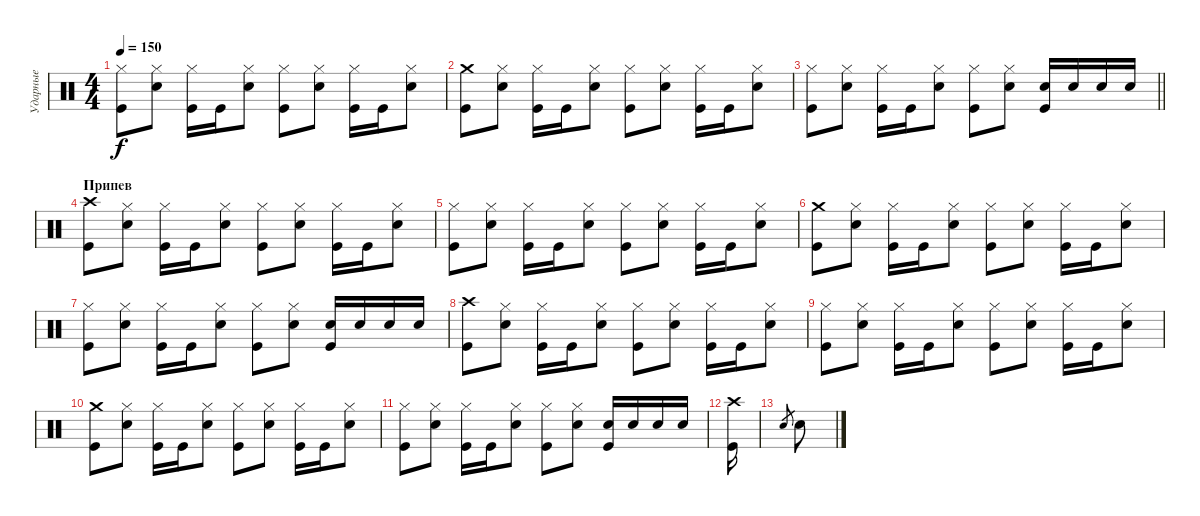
\track ("Ударные" "Ударные") {instrument percussion}
\staff {score}
\articulation defaults
\ts (4 4)
\tempo 150
\clef neutral
\ks c
("Kick (hit)" "Hi-Hat (closed)").8{dy f} ("Snare (hit) 2" "Hi-Hat (closed)").8 ("Kick (hit)" "Hi-Hat (closed)").16 "Kick (hit)".16 ("Snare (hit) 2" "Hi-Hat (closed)").8 ("Kick (hit)" "Hi-Hat (closed)").8 ("Snare (hit) 2" "Hi-Hat (closed)").8 ("Kick (hit)" "Hi-Hat (closed)").16 "Kick (hit)".16 ("Snare (hit) 2" "Hi-Hat (closed)").8 |
("Kick (hit)" "Crash medium (hit)").8 ("Snare (hit) 2" "Hi-Hat (closed)").8 ("Kick (hit)" "Hi-Hat (closed)").16 "Kick (hit)".16 ("Snare (hit) 2" "Hi-Hat (closed)").8 ("Kick (hit)" "Hi-Hat (closed)").8 ("Snare (hit) 2" "Hi-Hat (closed)").8 ("Kick (hit)" "Hi-Hat (closed)").16 "Kick (hit)".16 ("Snare (hit) 2" "Hi-Hat (closed)").8 |
\barLineRight lightlight
("Kick (hit)" "Hi-Hat (closed)").8 ("Snare (hit) 2" "Hi-Hat (closed)").8 ("Kick (hit)" "Hi-Hat (closed)").16 "Kick (hit)".16 ("Snare (hit) 2" "Hi-Hat (closed)").8 ("Kick (hit)" "Hi-Hat (closed)").8 ("Snare (hit) 2" "Hi-Hat (closed)").8 ("Snare (hit) 2" "Kick (hit)").16 "Snare (hit) 2".16 "Snare (hit) 2".16 "Snare (hit) 2".16 |
\section ("" "Припев")
("Kick (hit)" "Crash high (hit)").8 ("Snare (hit) 2" "Hi-Hat (closed)").8 ("Kick (hit)" "Hi-Hat (closed)").16 "Kick (hit)".16 ("Snare (hit) 2" "Hi-Hat (closed)").8 ("Kick (hit)" "Hi-Hat (closed)").8 ("Snare (hit) 2" "Hi-Hat (closed)").8 ("Kick (hit)" "Hi-Hat (closed)").16 "Kick (hit)".16 ("Snare (hit) 2" "Hi-Hat (closed)").8 |
("Kick (hit)" "Hi-Hat (closed)").8 ("Snare (hit) 2" "Hi-Hat (closed)").8 ("Kick (hit)" "Hi-Hat (closed)").16 "Kick (hit)".16 ("Snare (hit) 2" "Hi-Hat (closed)").8 ("Kick (hit)" "Hi-Hat (closed)").8 ("Snare (hit) 2" "Hi-Hat (closed)").8 ("Kick (hit)" "Hi-Hat (closed)").16 "Kick (hit)".16 ("Snare (hit) 2" "Hi-Hat (closed)").8 |
("Kick (hit)" "Crash medium (hit)").8 ("Snare (hit) 2" "Hi-Hat (closed)").8 ("Kick (hit)" "Hi-Hat (closed)").16 "Kick (hit)".16 ("Snare (hit) 2" "Hi-Hat (closed)").8 ("Kick (hit)" "Hi-Hat (closed)").8 ("Snare (hit) 2" "Hi-Hat (closed)").8 ("Kick (hit)" "Hi-Hat (closed)").16 "Kick (hit)".16 ("Snare (hit) 2" "Hi-Hat (closed)").8 |
("Kick (hit)" "Hi-Hat (closed)").8 ("Snare (hit) 2" "Hi-Hat (closed)").8 ("Kick (hit)" "Hi-Hat (closed)").16 "Kick (hit)".16 ("Snare (hit) 2" "Hi-Hat (closed)").8 ("Kick (hit)" "Hi-Hat (closed)").8 ("Snare (hit) 2" "Hi-Hat (closed)").8 ("Snare (hit) 2" "Kick (hit)").16 "Snare (hit) 2".16 "Snare (hit) 2".16 "Snare (hit) 2".16 |
("Kick (hit)" "Crash high (hit)").8 ("Snare (hit) 2" "Hi-Hat (closed)").8 ("Kick (hit)" "Hi-Hat (closed)").16 "Kick (hit)".16 ("Snare (hit) 2" "Hi-Hat (closed)").8 ("Kick (hit)" "Hi-Hat (closed)").8 ("Snare (hit) 2" "Hi-Hat (closed)").8 ("Kick (hit)" "Hi-Hat (closed)").16 "Kick (hit)".16 ("Snare (hit) 2" "Hi-Hat (closed)").8 |
("Kick (hit)" "Hi-Hat (closed)").8 ("Snare (hit) 2" "Hi-Hat (closed)").8 ("Kick (hit)" "Hi-Hat (closed)").16 "Kick (hit)".16 ("Snare (hit) 2" "Hi-Hat (closed)").8 ("Kick (hit)" "Hi-Hat (closed)").8 ("Snare (hit) 2" "Hi-Hat (closed)").8 ("Kick (hit)" "Hi-Hat (closed)").16 "Kick (hit)".16 ("Snare (hit) 2" "Hi-Hat (closed)").8 |
("Kick (hit)" "Crash medium (hit)").8 ("Snare (hit) 2" "Hi-Hat (closed)").8 ("Kick (hit)" "Hi-Hat (closed)").16 "Kick (hit)".16 ("Snare (hit) 2" "Hi-Hat (closed)").8 ("Kick (hit)" "Hi-Hat (closed)").8 ("Snare (hit) 2" "Hi-Hat (closed)").8 ("Kick (hit)" "Hi-Hat (closed)").16 "Kick (hit)".16 ("Snare (hit) 2" "Hi-Hat (closed)").8 |
("Kick (hit)" "Hi-Hat (closed)").8 ("Snare (hit) 2" "Hi-Hat (closed)").8 ("Kick (hit)" "Hi-Hat (closed)").16 "Kick (hit)".16 ("Snare (hit) 2" "Hi-Hat (closed)").8 ("Kick (hit)" "Hi-Hat (closed)").8 ("Snare (hit) 2" "Hi-Hat (closed)").8 ("Snare (hit) 2" "Kick (hit)").16 "Snare (hit) 2".16 "Snare (hit) 2".16 "Snare (hit) 2".16 |
("Kick (hit)" "Crash high (hit)").16 |
"Snare (hit) 2".8{gr} "Snare (hit) 2".8
